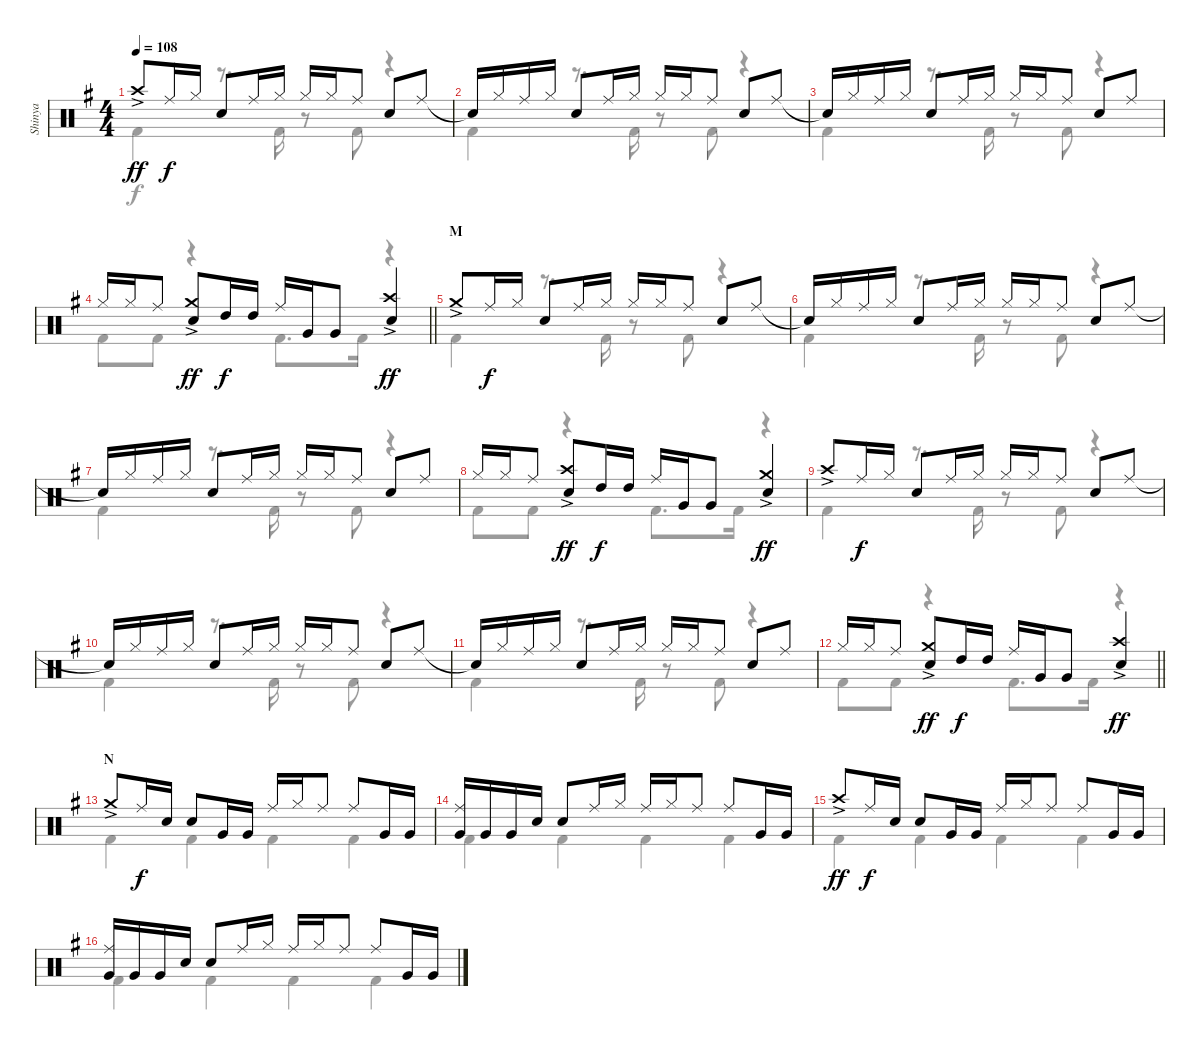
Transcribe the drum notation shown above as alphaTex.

\track ("Shinya" "Shinya") {instrument percussion}
\staff {score}
\articulation defaults
\voice
\ts (4 4)
\tempo 108
\clef neutral
\ks eminor "Crash high (hit)"{ac}.8{dy ff} "Ride (middle)".16{dy f} "Hi-Hat (closed)".16 "Snare (hit) 2".8 "Ride (middle)".16 "Hi-Hat (closed)".16 "Hi-Hat (closed)".16 "Hi-Hat (closed)".16 "Ride (middle)".8 "Snare (hit) 2".8 "Ride (middle)".8
|
"Snare (hit)"{t}.16 "Hi-Hat (closed)".16 "Ride (middle)".16 "Hi-Hat (closed)".16 "Snare (hit) 2".8 "Ride (middle)".16 "Hi-Hat (closed)".16 "Hi-Hat (closed)".16 "Hi-Hat (closed)".16 "Ride (middle)".8 "Snare (hit) 2".8 "Ride (middle)".8 |
"Snare (hit)"{t}.16 "Hi-Hat (closed)".16 "Ride (middle)".16 "Hi-Hat (closed)".16 "Snare (hit) 2".8 "Ride (middle)".16 "Hi-Hat (closed)".16 "Hi-Hat (closed)".16 "Hi-Hat (closed)".16 "Ride (middle)".8 "Snare (hit) 2".8 "Ride (middle)".8 |
\barLineRight lightlight "Hi-Hat (closed)".16 "Hi-Hat (closed)".16 "Ride (middle)".8
("Crash medium (hit)"{ac} "Snare (hit) 2").8{dy ff} "High Tom (hit)".16{dy f} "High Tom (hit)".16 "Ride (middle)".16 "Very Low Tom (hit)".16 "Very Low Tom (hit)".8 ("Crash high (hit)"{ac} "Snare (hit) 2").4{dy ff} |
\section ("" "M")
"Crash medium (hit)"{ac}.8 "Ride (middle)".16{dy f} "Hi-Hat (closed)".16 "Snare (hit) 2".8 "Ride (middle)".16 "Hi-Hat (closed)".16 "Hi-Hat (closed)".16 "Hi-Hat (closed)".16 "Ride (middle)".8 "Snare (hit) 2".8 "Ride (middle)".8 |
"Snare (hit)"{t}.16 "Hi-Hat (closed)".16 "Ride (middle)".16 "Hi-Hat (closed)".16 "Snare (hit) 2".8 "Ride (middle)".16 "Hi-Hat (closed)".16 "Hi-Hat (closed)".16 "Hi-Hat (closed)".16 "Ride (middle)".8 "Snare (hit) 2".8 "Ride (middle)".8 |
"Snare (hit)"{t}.16 "Hi-Hat (closed)".16 "Ride (middle)".16 "Hi-Hat (closed)".16 "Snare (hit) 2".8 "Ride (middle)".16 "Hi-Hat (closed)".16 "Hi-Hat (closed)".16 "Hi-Hat (closed)".16 "Ride (middle)".8 "Snare (hit) 2".8 "Ride (middle)".8 |
"Hi-Hat (closed)".16 "Hi-Hat (closed)".16 "Ride (middle)".8 ("Crash high (hit)"{ac} "Snare (hit) 2").8{dy ff} "High Tom (hit)".16{dy f} "High Tom (hit)".16 "Ride (middle)".16 "Very Low Tom (hit)".16 "Very Low Tom (hit)".8 ("Crash medium (hit)"{ac} "Snare (hit) 2").4{dy ff} |
"Crash high (hit)"{ac}.8 "Ride (middle)".16{dy f} "Hi-Hat (closed)".16 "Snare (hit) 2".8 "Ride (middle)".16 "Hi-Hat (closed)".16 "Hi-Hat (closed)".16 "Hi-Hat (closed)".16 "Ride (middle)".8 "Snare (hit) 2".8 "Ride (middle)".8 |
"Snare (hit)"{t}.16 "Hi-Hat (closed)".16 "Ride (middle)".16 "Hi-Hat (closed)".16 "Snare (hit) 2".8 "Ride (middle)".16 "Hi-Hat (closed)".16 "Hi-Hat (closed)".16 "Hi-Hat (closed)".16 "Ride (middle)".8 "Snare (hit) 2".8 "Ride (middle)".8 |
"Snare (hit)"{t}.16 "Hi-Hat (closed)".16 "Ride (middle)".16 "Hi-Hat (closed)".16 "Snare (hit) 2".8 "Ride (middle)".16 "Hi-Hat (closed)".16 "Hi-Hat (closed)".16 "Hi-Hat (closed)".16 "Ride (middle)".8 "Snare (hit) 2".8 "Ride (middle)".8 |
\barLineRight lightlight "Hi-Hat (closed)".16 "Hi-Hat (closed)".16 "Ride (middle)".8
("Crash medium (hit)"{ac} "Snare (hit) 2").8{dy ff} "High Tom (hit)".16{dy f} "High Tom (hit)".16 "Ride (middle)".16 "Very Low Tom (hit)".16 "Very Low Tom (hit)".8 ("Crash high (hit)"{ac} "Snare (hit) 2").4{dy ff} |
\section ("" "N")
"Crash medium (hit)"{ac}.8 "Ride (middle)".16{dy f} "Snare (hit) 2".16 "Snare (hit) 2".8 "Very Low Tom (hit)".16 "Very Low Tom (hit)".16 "Ride (middle)".16 "Hi-Hat (closed)".16 "Ride (middle)".8 "Ride (middle)".8 "Very Low Tom (hit)".16 "Very Low Tom (hit)".16 |
("Ride (middle)" "Very Low Tom (hit)").16 "Very Low Tom (hit)".16 "Very Low Tom (hit)".16 "Snare (hit) 2".16 "Snare (hit) 2".8 "Ride (middle)".16 "Hi-Hat (closed)".16 "Ride (middle)".16 "Hi-Hat (closed)".16 "Ride (middle)".8 "Ride (middle)".8 "Very Low Tom (hit)".16 "Very Low Tom (hit)".16 |
"Crash high (hit)"{ac}.8{dy ff} "Ride (middle)".16{dy f} "Snare (hit) 2".16 "Snare (hit) 2".8 "Very Low Tom (hit)".16 "Very Low Tom (hit)".16 "Ride (middle)".16 "Hi-Hat (closed)".16 "Ride (middle)".8 "Ride (middle)".8 "Very Low Tom (hit)".16 "Very Low Tom (hit)".16 |
("Ride (middle)" "Very Low Tom (hit)").16 "Very Low Tom (hit)".16 "Very Low Tom (hit)".16 "Snare (hit) 2".16 "Snare (hit) 2".8 "Ride (middle)".16 "Hi-Hat (closed)".16 "Ride (middle)".16 "Hi-Hat (closed)".16 "Ride (middle)".8 "Ride (middle)".8 "Very Low Tom (hit)".16 "Very Low Tom (hit)".16
\voice
\clef neutral
\ottava regular
\simile none
\ks eminor "Kick (hit) 2".4{dy f}
r.8{d} "Kick (hit) 2".16 r.8 "Kick (hit) 2".8 r.4 |
"Kick (hit) 2".4 r.8{d} "Kick (hit) 2".16 r.8 "Kick (hit) 2".8 r.4 |
"Kick (hit) 2".4 r.8{d} "Kick (hit) 2".16 r.8 "Kick (hit) 2".8 r.4 |
\barLineRight lightlight "Kick (hit) 2".8 "Kick (hit) 2".8
r.4 "Kick (hit) 2".8{d} "Kick (hit) 2".16 r.4 |
"Kick (hit) 2".4 r.8{d} "Kick (hit) 2".16 r.8 "Kick (hit) 2".8 r.4 |
"Kick (hit) 2".4 r.8{d} "Kick (hit) 2".16 r.8 "Kick (hit) 2".8 r.4 |
"Kick (hit) 2".4 r.8{d} "Kick (hit) 2".16 r.8 "Kick (hit) 2".8 r.4 |
"Kick (hit) 2".8 "Kick (hit) 2".8 r.4 "Kick (hit) 2".8{d} "Kick (hit) 2".16 r.4 |
"Kick (hit) 2".4 r.8{d} "Kick (hit) 2".16 r.8 "Kick (hit) 2".8 r.4 |
"Kick (hit) 2".4 r.8{d} "Kick (hit) 2".16 r.8 "Kick (hit) 2".8 r.4 |
"Kick (hit) 2".4 r.8{d} "Kick (hit) 2".16 r.8 "Kick (hit) 2".8 r.4 |
\barLineRight lightlight "Kick (hit) 2".8 "Kick (hit) 2".8
r.4 "Kick (hit) 2".8{d} "Kick (hit) 2".16 r.4 |
"Kick (hit) 2".4 "Kick (hit) 2".4 "Kick (hit) 2".4 "Kick (hit) 2".4 |
"Kick (hit) 2".4 "Kick (hit) 2".4 "Kick (hit) 2".4 "Kick (hit) 2".4 |
"Kick (hit) 2".4 "Kick (hit) 2".4 "Kick (hit) 2".4 "Kick (hit) 2".4 |
"Kick (hit) 2".4 "Kick (hit) 2".4 "Kick (hit) 2".4 "Kick (hit) 2".4
